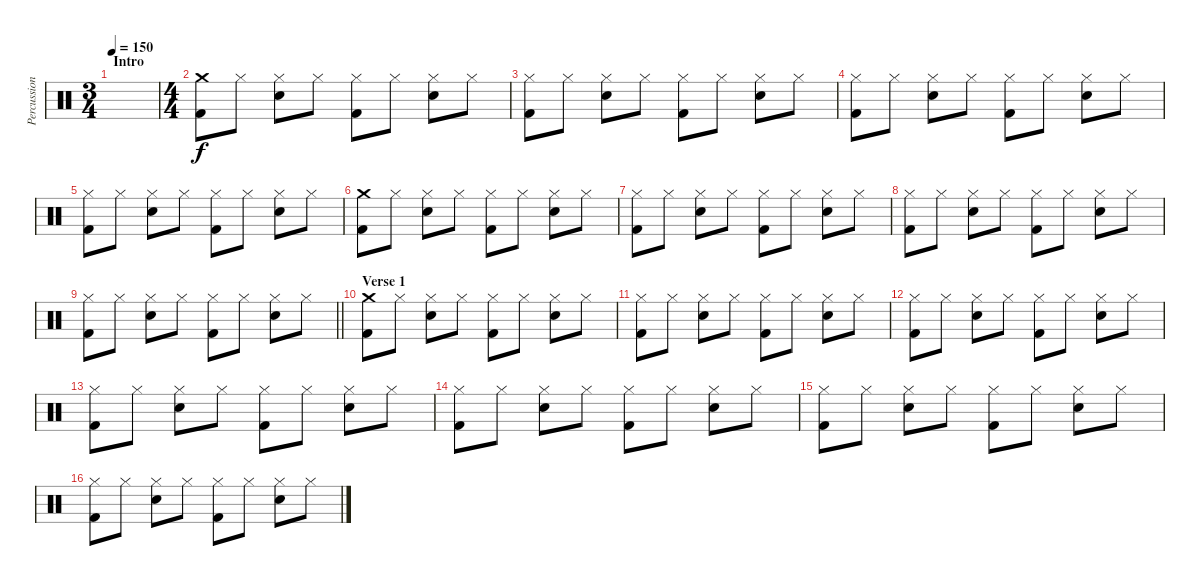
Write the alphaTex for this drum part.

\track ("Percussion" "Percussion") {instrument percussion}
\staff {score}
\articulation defaults
\ts (3 4)
\section ("" "Intro")
\tempo 150
\clef neutral
\ks c
|
\ts (4 4)
("Crash medium (hit)" "Kick (hit) 2").8 "Hi-Hat (closed)".8 ("Hi-Hat (closed)" "Snare (hit) 2").8 "Hi-Hat (closed)".8 ("Hi-Hat (closed)" "Kick (hit) 2").8 "Hi-Hat (closed)".8 ("Hi-Hat (closed)" "Snare (hit) 2").8 "Hi-Hat (closed)".8 |
("Hi-Hat (closed)" "Kick (hit) 2").8 "Hi-Hat (closed)".8 ("Hi-Hat (closed)" "Snare (hit) 2").8 "Hi-Hat (closed)".8 ("Hi-Hat (closed)" "Kick (hit) 2").8 "Hi-Hat (closed)".8 ("Hi-Hat (closed)" "Snare (hit) 2").8 "Hi-Hat (closed)".8 |
("Hi-Hat (closed)" "Kick (hit) 2").8 "Hi-Hat (closed)".8 ("Hi-Hat (closed)" "Snare (hit) 2").8 "Hi-Hat (closed)".8 ("Hi-Hat (closed)" "Kick (hit) 2").8 "Hi-Hat (closed)".8 ("Hi-Hat (closed)" "Snare (hit) 2").8 "Hi-Hat (closed)".8 |
("Hi-Hat (closed)" "Kick (hit) 2").8 "Hi-Hat (closed)".8 ("Hi-Hat (closed)" "Snare (hit) 2").8 "Hi-Hat (closed)".8 ("Hi-Hat (closed)" "Kick (hit) 2").8 "Hi-Hat (closed)".8 ("Hi-Hat (closed)" "Snare (hit) 2").8 "Hi-Hat (closed)".8 |
("Crash medium (hit)" "Kick (hit) 2").8 "Hi-Hat (closed)".8 ("Hi-Hat (closed)" "Snare (hit) 2").8 "Hi-Hat (closed)".8 ("Hi-Hat (closed)" "Kick (hit) 2").8 "Hi-Hat (closed)".8 ("Hi-Hat (closed)" "Snare (hit) 2").8 "Hi-Hat (closed)".8 |
("Hi-Hat (closed)" "Kick (hit) 2").8 "Hi-Hat (closed)".8 ("Hi-Hat (closed)" "Snare (hit) 2").8 "Hi-Hat (closed)".8 ("Hi-Hat (closed)" "Kick (hit) 2").8 "Hi-Hat (closed)".8 ("Hi-Hat (closed)" "Snare (hit) 2").8 "Hi-Hat (closed)".8 |
("Hi-Hat (closed)" "Kick (hit) 2").8 "Hi-Hat (closed)".8 ("Hi-Hat (closed)" "Snare (hit) 2").8 "Hi-Hat (closed)".8 ("Hi-Hat (closed)" "Kick (hit) 2").8 "Hi-Hat (closed)".8 ("Hi-Hat (closed)" "Snare (hit) 2").8 "Hi-Hat (closed)".8 |
\barLineRight lightlight
("Hi-Hat (closed)" "Kick (hit) 2").8 "Hi-Hat (closed)".8 ("Hi-Hat (closed)" "Snare (hit) 2").8 "Hi-Hat (closed)".8 ("Hi-Hat (closed)" "Kick (hit) 2").8 "Hi-Hat (closed)".8 ("Hi-Hat (closed)" "Snare (hit) 2").8 "Hi-Hat (closed)".8 |
\section ("" "Verse 1")
("Crash medium (hit)" "Kick (hit) 2").8 "Hi-Hat (closed)".8 ("Hi-Hat (closed)" "Snare (hit) 2").8 "Hi-Hat (closed)".8 ("Hi-Hat (closed)" "Kick (hit) 2").8 "Hi-Hat (closed)".8 ("Hi-Hat (closed)" "Snare (hit) 2").8 "Hi-Hat (closed)".8 |
("Hi-Hat (closed)" "Kick (hit) 2").8 "Hi-Hat (closed)".8 ("Hi-Hat (closed)" "Snare (hit) 2").8 "Hi-Hat (closed)".8 ("Hi-Hat (closed)" "Kick (hit) 2").8 "Hi-Hat (closed)".8 ("Hi-Hat (closed)" "Snare (hit) 2").8 "Hi-Hat (closed)".8 |
("Hi-Hat (closed)" "Kick (hit) 2").8 "Hi-Hat (closed)".8 ("Hi-Hat (closed)" "Snare (hit) 2").8 "Hi-Hat (closed)".8 ("Hi-Hat (closed)" "Kick (hit) 2").8 "Hi-Hat (closed)".8 ("Hi-Hat (closed)" "Snare (hit) 2").8 "Hi-Hat (closed)".8 |
("Hi-Hat (closed)" "Kick (hit) 2").8 "Hi-Hat (closed)".8 ("Hi-Hat (closed)" "Snare (hit) 2").8 "Hi-Hat (closed)".8 ("Hi-Hat (closed)" "Kick (hit) 2").8 "Hi-Hat (closed)".8 ("Hi-Hat (closed)" "Snare (hit) 2").8 "Hi-Hat (closed)".8 |
("Hi-Hat (closed)" "Kick (hit) 2").8 "Hi-Hat (closed)".8 ("Hi-Hat (closed)" "Snare (hit) 2").8 "Hi-Hat (closed)".8 ("Hi-Hat (closed)" "Kick (hit) 2").8 "Hi-Hat (closed)".8 ("Hi-Hat (closed)" "Snare (hit) 2").8 "Hi-Hat (closed)".8 |
("Hi-Hat (closed)" "Kick (hit) 2").8 "Hi-Hat (closed)".8 ("Hi-Hat (closed)" "Snare (hit) 2").8 "Hi-Hat (closed)".8 ("Hi-Hat (closed)" "Kick (hit) 2").8 "Hi-Hat (closed)".8 ("Hi-Hat (closed)" "Snare (hit) 2").8 "Hi-Hat (closed)".8 |
("Hi-Hat (closed)" "Kick (hit) 2").8 "Hi-Hat (closed)".8 ("Hi-Hat (closed)" "Snare (hit) 2").8 "Hi-Hat (closed)".8 ("Hi-Hat (closed)" "Kick (hit) 2").8 "Hi-Hat (closed)".8 ("Hi-Hat (closed)" "Snare (hit) 2").8 "Hi-Hat (closed)".8
